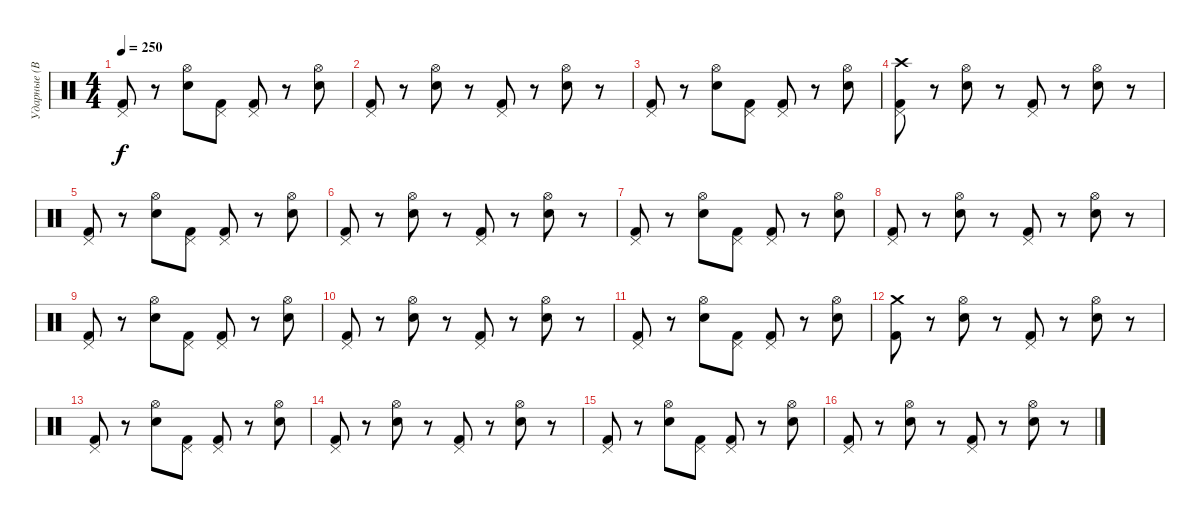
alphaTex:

\track ("Ударные (Вася)" "Ударные (В") {instrument percussion}
\staff {score}
\articulation defaults
\ts (4 4)
\tempo 250
\clef neutral
\ks c
("Pedal Hi-Hat (hit)" "Kick (hit) 2").8{dy f} r.8 ("Hi-Hat (open)" "Electric Snare (hit)").8 ("Pedal Hi-Hat (hit)" "Kick (hit) 2").8 ("Pedal Hi-Hat (hit)" "Kick (hit) 2").8 r.8 ("Hi-Hat (open)" "Electric Snare (hit)").8 |
("Pedal Hi-Hat (hit)" "Kick (hit) 2").8 r.8 ("Hi-Hat (open)" "Electric Snare (hit)").8 r.8 ("Pedal Hi-Hat (hit)" "Kick (hit) 2").8 r.8 ("Hi-Hat (open)" "Electric Snare (hit)").8 r.8 |
("Pedal Hi-Hat (hit)" "Kick (hit) 2").8 r.8 ("Hi-Hat (open)" "Electric Snare (hit)").8 ("Pedal Hi-Hat (hit)" "Kick (hit) 2").8 ("Pedal Hi-Hat (hit)" "Kick (hit) 2").8 r.8 ("Hi-Hat (open)" "Electric Snare (hit)").8 |
("Pedal Hi-Hat (hit)" "Kick (hit) 2" "Crash high (hit)").8 r.8 ("Hi-Hat (open)" "Electric Snare (hit)").8 r.8 ("Pedal Hi-Hat (hit)" "Kick (hit) 2").8 r.8 ("Hi-Hat (open)" "Electric Snare (hit)").8 r.8 |
("Pedal Hi-Hat (hit)" "Kick (hit) 2").8 r.8 ("Hi-Hat (open)" "Electric Snare (hit)").8 ("Pedal Hi-Hat (hit)" "Kick (hit) 2").8 ("Pedal Hi-Hat (hit)" "Kick (hit) 2").8 r.8 ("Hi-Hat (open)" "Electric Snare (hit)").8 |
("Pedal Hi-Hat (hit)" "Kick (hit) 2").8 r.8 ("Hi-Hat (open)" "Electric Snare (hit)").8 r.8 ("Pedal Hi-Hat (hit)" "Kick (hit) 2").8 r.8 ("Hi-Hat (open)" "Electric Snare (hit)").8 r.8 |
("Pedal Hi-Hat (hit)" "Kick (hit) 2").8 r.8 ("Hi-Hat (open)" "Electric Snare (hit)").8 ("Pedal Hi-Hat (hit)" "Kick (hit) 2").8 ("Pedal Hi-Hat (hit)" "Kick (hit) 2").8 r.8 ("Hi-Hat (open)" "Electric Snare (hit)").8 |
("Pedal Hi-Hat (hit)" "Kick (hit) 2").8 r.8 ("Hi-Hat (open)" "Electric Snare (hit)").8 r.8 ("Pedal Hi-Hat (hit)" "Kick (hit) 2").8 r.8 ("Hi-Hat (open)" "Electric Snare (hit)").8 r.8 |
("Pedal Hi-Hat (hit)" "Kick (hit) 2").8 r.8 ("Hi-Hat (open)" "Electric Snare (hit)").8 ("Pedal Hi-Hat (hit)" "Kick (hit) 2").8 ("Pedal Hi-Hat (hit)" "Kick (hit) 2").8 r.8 ("Hi-Hat (open)" "Electric Snare (hit)").8 |
("Pedal Hi-Hat (hit)" "Kick (hit) 2").8 r.8 ("Hi-Hat (open)" "Electric Snare (hit)").8 r.8 ("Pedal Hi-Hat (hit)" "Kick (hit) 2").8 r.8 ("Hi-Hat (open)" "Electric Snare (hit)").8 r.8 |
("Pedal Hi-Hat (hit)" "Kick (hit) 2").8 r.8 ("Hi-Hat (open)" "Electric Snare (hit)").8 ("Pedal Hi-Hat (hit)" "Kick (hit) 2").8 ("Pedal Hi-Hat (hit)" "Kick (hit) 2").8 r.8 ("Hi-Hat (open)" "Electric Snare (hit)").8 |
("Crash medium (hit)" "Kick (hit) 2").8 r.8 ("Hi-Hat (open)" "Electric Snare (hit)").8 r.8 ("Pedal Hi-Hat (hit)" "Kick (hit) 2").8 r.8 ("Hi-Hat (open)" "Electric Snare (hit)").8 r.8 |
("Pedal Hi-Hat (hit)" "Kick (hit) 2").8 r.8 ("Hi-Hat (open)" "Electric Snare (hit)").8 ("Pedal Hi-Hat (hit)" "Kick (hit) 2").8 ("Pedal Hi-Hat (hit)" "Kick (hit) 2").8 r.8 ("Hi-Hat (open)" "Electric Snare (hit)").8 |
("Pedal Hi-Hat (hit)" "Kick (hit) 2").8 r.8 ("Hi-Hat (open)" "Electric Snare (hit)").8 r.8 ("Pedal Hi-Hat (hit)" "Kick (hit) 2").8 r.8 ("Hi-Hat (open)" "Electric Snare (hit)").8 r.8 |
("Pedal Hi-Hat (hit)" "Kick (hit) 2").8 r.8 ("Hi-Hat (open)" "Electric Snare (hit)").8 ("Pedal Hi-Hat (hit)" "Kick (hit) 2").8 ("Pedal Hi-Hat (hit)" "Kick (hit) 2").8 r.8 ("Hi-Hat (open)" "Electric Snare (hit)").8 |
("Pedal Hi-Hat (hit)" "Kick (hit) 2").8 r.8 ("Hi-Hat (open)" "Electric Snare (hit)").8 r.8 ("Pedal Hi-Hat (hit)" "Kick (hit) 2").8 r.8 ("Hi-Hat (open)" "Electric Snare (hit)").8 r.8
